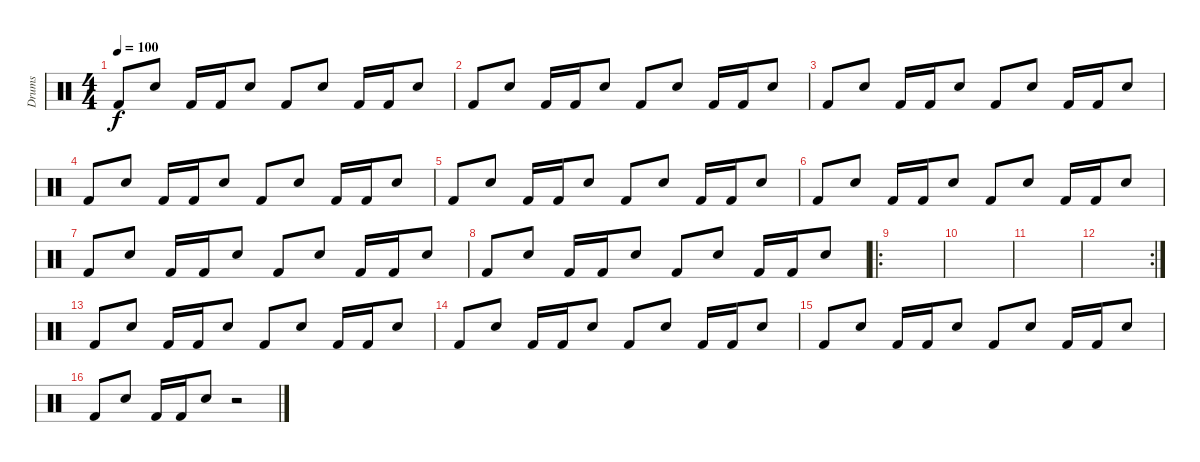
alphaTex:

\track ("Drums" "Drums") {instrument percussion}
\staff {score}
\articulation defaults
\ts (4 4)
\tempo 100
\clef neutral
\ks c "Kick (hit) 2".8{dy f} "Snare (hit) 2".8 "Kick (hit) 2".16 "Kick (hit) 2".16 "Snare (hit) 2".8 "Kick (hit) 2".8 "Snare (hit) 2".8 "Kick (hit) 2".16 "Kick (hit) 2".16 "Snare (hit) 2".8
|
"Kick (hit) 2".8 "Snare (hit) 2".8 "Kick (hit) 2".16 "Kick (hit) 2".16 "Snare (hit) 2".8 "Kick (hit) 2".8 "Snare (hit) 2".8 "Kick (hit) 2".16 "Kick (hit) 2".16 "Snare (hit) 2".8 |
"Kick (hit) 2".8 "Snare (hit) 2".8 "Kick (hit) 2".16 "Kick (hit) 2".16 "Snare (hit) 2".8 "Kick (hit) 2".8 "Snare (hit) 2".8 "Kick (hit) 2".16 "Kick (hit) 2".16 "Snare (hit) 2".8 |
"Kick (hit) 2".8 "Snare (hit) 2".8 "Kick (hit) 2".16 "Kick (hit) 2".16 "Snare (hit) 2".8 "Kick (hit) 2".8 "Snare (hit) 2".8 "Kick (hit) 2".16 "Kick (hit) 2".16 "Snare (hit) 2".8 |
"Kick (hit) 2".8 "Snare (hit) 2".8 "Kick (hit) 2".16 "Kick (hit) 2".16 "Snare (hit) 2".8 "Kick (hit) 2".8 "Snare (hit) 2".8 "Kick (hit) 2".16 "Kick (hit) 2".16 "Snare (hit) 2".8 |
"Kick (hit) 2".8 "Snare (hit) 2".8 "Kick (hit) 2".16 "Kick (hit) 2".16 "Snare (hit) 2".8 "Kick (hit) 2".8 "Snare (hit) 2".8 "Kick (hit) 2".16 "Kick (hit) 2".16 "Snare (hit) 2".8 |
"Kick (hit) 2".8 "Snare (hit) 2".8 "Kick (hit) 2".16 "Kick (hit) 2".16 "Snare (hit) 2".8 "Kick (hit) 2".8 "Snare (hit) 2".8 "Kick (hit) 2".16 "Kick (hit) 2".16 "Snare (hit) 2".8 |
"Kick (hit) 2".8 "Snare (hit) 2".8 "Kick (hit) 2".16 "Kick (hit) 2".16 "Snare (hit) 2".8 "Kick (hit) 2".8 "Snare (hit) 2".8 "Kick (hit) 2".16 "Kick (hit) 2".16 "Snare (hit) 2".8 |
\ro
|
|
|
\rc 2
|
"Kick (hit) 2".8 "Snare (hit) 2".8 "Kick (hit) 2".16 "Kick (hit) 2".16 "Snare (hit) 2".8 "Kick (hit) 2".8 "Snare (hit) 2".8 "Kick (hit) 2".16 "Kick (hit) 2".16 "Snare (hit) 2".8 |
"Kick (hit) 2".8 "Snare (hit) 2".8 "Kick (hit) 2".16 "Kick (hit) 2".16 "Snare (hit) 2".8 "Kick (hit) 2".8 "Snare (hit) 2".8 "Kick (hit) 2".16 "Kick (hit) 2".16 "Snare (hit) 2".8 |
"Kick (hit) 2".8 "Snare (hit) 2".8 "Kick (hit) 2".16 "Kick (hit) 2".16 "Snare (hit) 2".8 "Kick (hit) 2".8 "Snare (hit) 2".8 "Kick (hit) 2".16 "Kick (hit) 2".16 "Snare (hit) 2".8 |
"Kick (hit) 2".8 "Snare (hit) 2".8 "Kick (hit) 2".16 "Kick (hit) 2".16 "Snare (hit) 2".8 r.2
